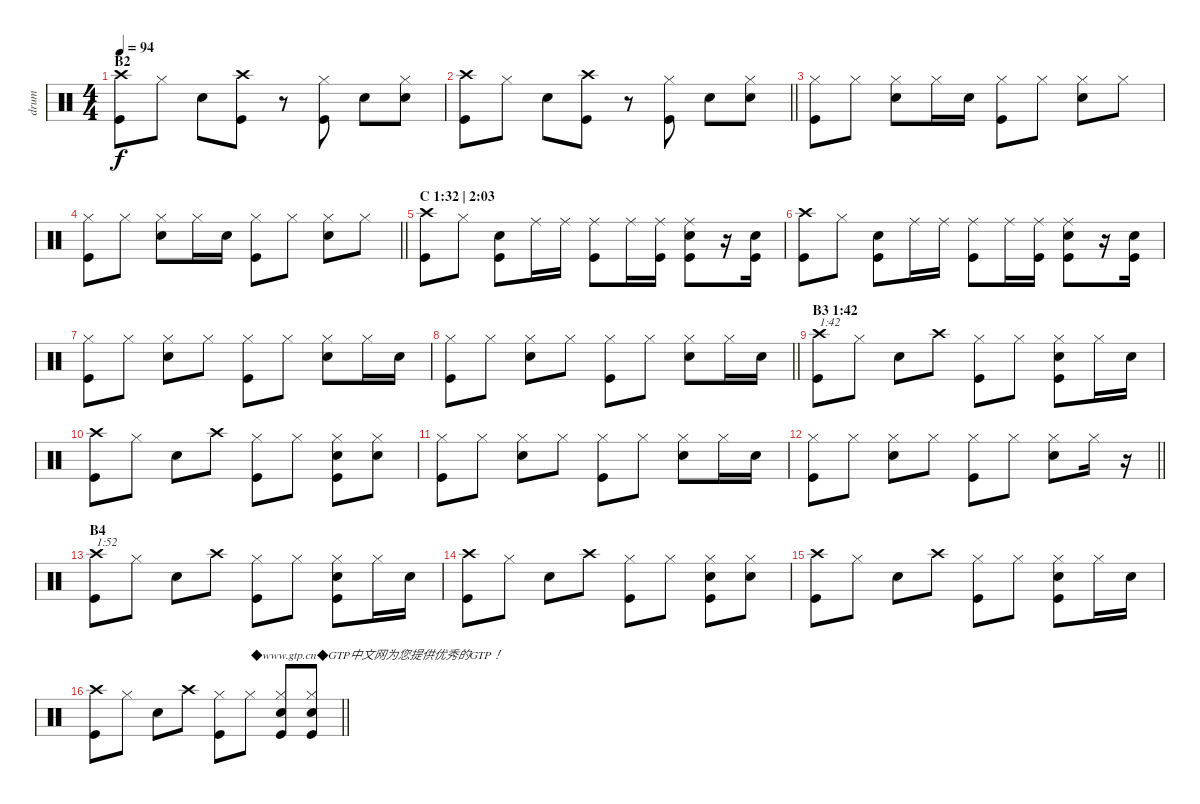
\track ("drum" "drum") {instrument percussion}
\staff {score}
\articulation defaults
\ts (4 4)
\section ("" "B2")
\tempo 94
\clef neutral
\ks c
("Crash high (hit)" "Kick (hit)").8{dy f} "Hi-Hat (closed)".8 "Snare (hit) 2".8 ("Crash high (hit)" "Kick (hit)").8 r.8 ("Hi-Hat (closed)" "Kick (hit)").8 "Snare (hit) 2".8 ("Hi-Hat (closed)" "Snare (hit) 2").8 |
\barLineRight lightlight
("Crash high (hit)" "Kick (hit)").8 "Hi-Hat (closed)".8 "Snare (hit) 2".8 ("Crash high (hit)" "Kick (hit)").8 r.8 ("Hi-Hat (closed)" "Kick (hit)").8 "Snare (hit) 2".8 ("Hi-Hat (closed)" "Snare (hit) 2").8 |
\section ("" "")
("Hi-Hat (closed)" "Kick (hit)").8 "Hi-Hat (closed)".8 ("Hi-Hat (closed)" "Snare (hit) 2").8 "Hi-Hat (closed)".16 "Snare (hit) 2".16 ("Hi-Hat (closed)" "Kick (hit)").8 "Hi-Hat (closed)".8 ("Hi-Hat (closed)" "Snare (hit) 2").8 "Hi-Hat (closed)".8 |
\barLineRight lightlight
("Hi-Hat (closed)" "Kick (hit)").8 "Hi-Hat (closed)".8 ("Hi-Hat (closed)" "Snare (hit) 2").8 "Hi-Hat (closed)".16 "Snare (hit) 2".16 ("Hi-Hat (closed)" "Kick (hit)").8 "Hi-Hat (closed)".8 ("Hi-Hat (closed)" "Snare (hit) 2").8 "Hi-Hat (closed)".8 |
\section ("" "C 1:32 | 2:03")
("Crash high (hit)" "Kick (hit)").8 "Hi-Hat (closed)".8 ("Snare (hit) 2" "Kick (hit)").8 "Ride (middle)".16 "Ride (middle)".16 ("Ride (middle)" "Kick (hit)").8 "Ride (middle)".16 ("Ride (middle)" "Kick (hit)").16 ("Ride (middle)" "Snare (hit) 2" "Kick (hit)").8 r.16 ("Snare (hit) 2" "Kick (hit)").16 |
("Crash high (hit)" "Kick (hit)").8 "Hi-Hat (closed)".8 ("Snare (hit) 2" "Kick (hit)").8 "Ride (middle)".16 "Ride (middle)".16 ("Ride (middle)" "Kick (hit)").8 "Ride (middle)".16 ("Ride (middle)" "Kick (hit)").16 ("Ride (middle)" "Snare (hit) 2" "Kick (hit)").8 r.16 ("Snare (hit) 2" "Kick (hit)").16 |
("Hi-Hat (closed)" "Kick (hit)").8 "Hi-Hat (closed)".8 ("Hi-Hat (closed)" "Snare (hit) 2").8 "Hi-Hat (closed)".8 ("Hi-Hat (closed)" "Kick (hit)").8 "Hi-Hat (closed)".8 ("Hi-Hat (closed)" "Snare (hit) 2").8 "Hi-Hat (closed)".16 "Snare (hit) 2".16 |
\barLineRight lightlight
("Hi-Hat (closed)" "Kick (hit)").8 "Hi-Hat (closed)".8 ("Hi-Hat (closed)" "Snare (hit) 2").8 "Hi-Hat (closed)".8 ("Hi-Hat (closed)" "Kick (hit)").8 "Hi-Hat (closed)".8 ("Hi-Hat (closed)" "Snare (hit) 2").8 "Hi-Hat (closed)".16 "Snare (hit) 2".16 |
\section ("" "B3 1:42")
("Crash high (hit)" "Kick (hit)").8{txt "1:42"} "Hi-Hat (closed)".8 "Snare (hit) 2".8 "Crash high (hit)".8 ("Hi-Hat (closed)" "Kick (hit)").8 "Hi-Hat (closed)".8 ("Hi-Hat (closed)" "Snare (hit) 2" "Kick (hit)").8 "Hi-Hat (closed)".16 "Snare (hit) 2".16 |
("Crash high (hit)" "Kick (hit)").8 "Hi-Hat (closed)".8 "Snare (hit) 2".8 "Crash high (hit)".8 ("Hi-Hat (closed)" "Kick (hit)").8 "Hi-Hat (closed)".8 ("Hi-Hat (closed)" "Snare (hit) 2" "Kick (hit)").8 ("Hi-Hat (closed)" "Snare (hit) 2").8 |
("Hi-Hat (closed)" "Kick (hit)").8 "Hi-Hat (closed)".8 ("Hi-Hat (closed)" "Snare (hit) 2").8 "Hi-Hat (closed)".8 ("Hi-Hat (closed)" "Kick (hit)").8 "Hi-Hat (closed)".8 ("Hi-Hat (closed)" "Snare (hit) 2").8 "Hi-Hat (closed)".16 "Snare (hit) 2".16 |
\barLineRight lightlight
("Hi-Hat (closed)" "Kick (hit)").8 "Hi-Hat (closed)".8 ("Hi-Hat (closed)" "Snare (hit) 2").8 "Hi-Hat (closed)".8 ("Hi-Hat (closed)" "Kick (hit)").8 "Hi-Hat (closed)".8 ("Hi-Hat (closed)" "Snare (hit) 2").8 "Hi-Hat (closed)".16 r.16 |
\section ("" "B4")
("Crash high (hit)" "Kick (hit)").8{txt "1:52"} "Hi-Hat (closed)".8 "Snare (hit) 2".8 "Crash high (hit)".8 ("Hi-Hat (closed)" "Kick (hit)").8 "Hi-Hat (closed)".8 ("Hi-Hat (closed)" "Snare (hit) 2" "Kick (hit)").8 "Hi-Hat (closed)".16 "Snare (hit) 2".16 |
("Crash high (hit)" "Kick (hit)").8 "Hi-Hat (closed)".8 "Snare (hit) 2".8 "Crash high (hit)".8 ("Hi-Hat (closed)" "Kick (hit)").8 "Hi-Hat (closed)".8 ("Hi-Hat (closed)" "Snare (hit) 2" "Kick (hit)").8 ("Hi-Hat (closed)" "Snare (hit) 2").8 |
("Crash high (hit)" "Kick (hit)").8 "Hi-Hat (closed)".8 "Snare (hit) 2".8 "Crash high (hit)".8 ("Hi-Hat (closed)" "Kick (hit)").8 "Hi-Hat (closed)".8 ("Hi-Hat (closed)" "Snare (hit) 2" "Kick (hit)").8 "Hi-Hat (closed)".16 "Snare (hit) 2".16 |
\barLineRight lightlight
("Crash high (hit)" "Kick (hit)").8 "Hi-Hat (closed)".8 "Snare (hit) 2".8 "Crash high (hit)".8 ("Hi-Hat (closed)" "Kick (hit)").8 "Hi-Hat (closed)".8{txt "◆www.gtp.cn◆GTP中文网为您提供优秀的GTP！"} ("Hi-Hat (closed)" "Snare (hit) 2" "Kick (hit)").8 ("Hi-Hat (closed)" "Snare (hit) 2" "Kick (hit)").8
